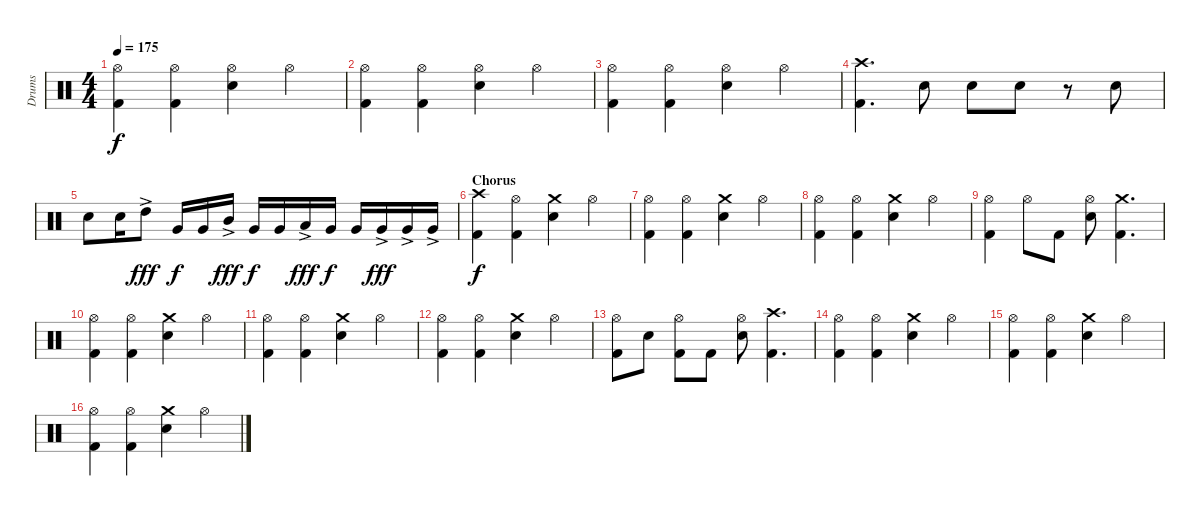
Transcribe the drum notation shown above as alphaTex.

\track ("Drums" "Drums") {instrument percussion}
\staff {score}
\articulation defaults
\ts (4 4)
\tempo 175
\clef neutral
\ks c
("Hi-Hat (open)" "Kick (hit) 2").4{dy f} ("Hi-Hat (open)" "Kick (hit) 2").4 ("Hi-Hat (open)" "Snare (hit) 2").4 "Hi-Hat (open)".4 |
("Hi-Hat (open)" "Kick (hit) 2").4 ("Hi-Hat (open)" "Kick (hit) 2").4 ("Hi-Hat (open)" "Snare (hit) 2").4 "Hi-Hat (open)".4 |
("Hi-Hat (open)" "Kick (hit) 2").4 ("Hi-Hat (open)" "Kick (hit) 2").4 ("Hi-Hat (open)" "Snare (hit) 2").4 "Hi-Hat (open)".4 |
("Crash high (hit)" "Kick (hit) 2").4{d} "Snare (hit) 2".8 "Snare (hit) 2".8 "Snare (hit) 2".8 r.8 "Snare (hit) 2".8 |
"Snare (hit) 2".8 "Snare (hit) 2".16 "High Tom (hit)"{ac}.8{dy fff} "Very Low Tom (hit)".16{dy f} "Very Low Tom (hit)".16 "Mid Tom (hit)"{ac}.16{dy fff} "Very Low Tom (hit)".16{dy f} "Very Low Tom (hit)".16 "Low Tom (hit)"{ac}.16{dy fff} "Very Low Tom (hit)".16{dy f} "Very Low Tom (hit)".16 "Very Low Tom (hit)"{ac}.16{dy fff} "Very Low Tom (hit)"{ac}.16 "Very Low Tom (hit)"{ac}.16 |
\section ("" "Chorus")
("Crash high (hit)" "Kick (hit) 2").4{dy f} ("Hi-Hat (open)" "Kick (hit) 2").4 ("Crash medium (hit)" "Snare (hit) 2").4 "Hi-Hat (open)".4 |
("Hi-Hat (open)" "Kick (hit) 2").4 ("Hi-Hat (open)" "Kick (hit) 2").4 ("Crash medium (hit)" "Snare (hit) 2").4 "Hi-Hat (open)".4 |
("Hi-Hat (open)" "Kick (hit) 2").4 ("Hi-Hat (open)" "Kick (hit) 2").4 ("Crash medium (hit)" "Snare (hit) 2").4 "Hi-Hat (open)".4 |
("Hi-Hat (open)" "Kick (hit) 2").4 "Hi-Hat (open)".8 "Kick (hit) 2".8 ("Hi-Hat (open)" "Snare (hit) 2").8 ("Crash medium (hit)" "Kick (hit) 2").4{d} |
("Hi-Hat (open)" "Kick (hit) 2").4 ("Hi-Hat (open)" "Kick (hit) 2").4 ("Crash medium (hit)" "Snare (hit) 2").4 "Hi-Hat (open)".4 |
("Hi-Hat (open)" "Kick (hit) 2").4 ("Hi-Hat (open)" "Kick (hit) 2").4 ("Crash medium (hit)" "Snare (hit) 2").4 "Hi-Hat (open)".4 |
("Hi-Hat (open)" "Kick (hit) 2").4 ("Hi-Hat (open)" "Kick (hit) 2").4 ("Crash medium (hit)" "Snare (hit) 2").4 "Hi-Hat (open)".4 |
("Hi-Hat (open)" "Kick (hit) 2").8 "Snare (hit) 2".8 ("Hi-Hat (open)" "Kick (hit) 2").8 "Kick (hit) 2".8 ("Hi-Hat (open)" "Snare (hit) 2").8 ("Crash high (hit)" "Kick (hit) 2").4{d} |
("Hi-Hat (open)" "Kick (hit) 2").4 ("Hi-Hat (open)" "Kick (hit) 2").4 ("Crash medium (hit)" "Snare (hit) 2").4 "Hi-Hat (open)".4 |
("Hi-Hat (open)" "Kick (hit) 2").4 ("Hi-Hat (open)" "Kick (hit) 2").4 ("Crash medium (hit)" "Snare (hit) 2").4 "Hi-Hat (open)".4 |
("Hi-Hat (open)" "Kick (hit) 2").4 ("Hi-Hat (open)" "Kick (hit) 2").4 ("Crash medium (hit)" "Snare (hit) 2").4 "Hi-Hat (open)".4
